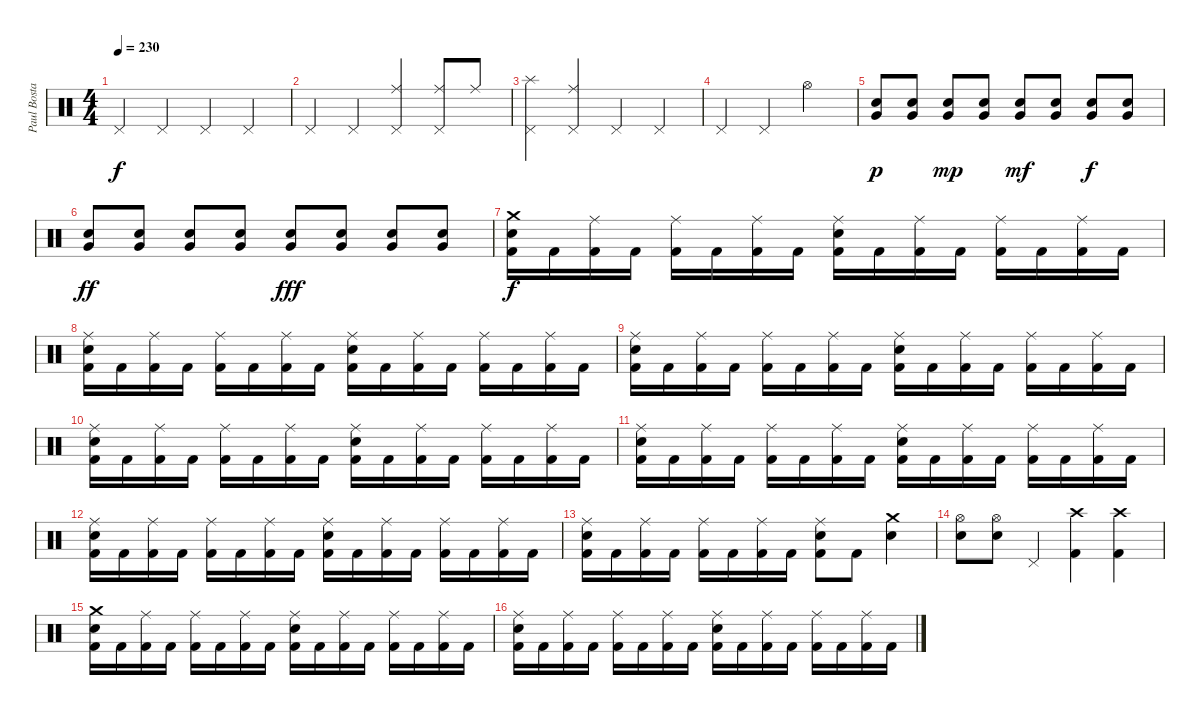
\track ("Paul Bostaph" "Paul Bosta") {instrument percussion}
\staff {score}
\articulation defaults
\ts (4 4)
\tempo 230
\clef neutral
\ks c "Pedal Hi-Hat (hit)".4{dy f} "Pedal Hi-Hat (hit)".4 "Pedal Hi-Hat (hit)".4 "Pedal Hi-Hat (hit)".4
|
"Pedal Hi-Hat (hit)".4 "Pedal Hi-Hat (hit)".4 ("Ride (middle)" "Pedal Hi-Hat (hit)").4 ("Ride (middle)" "Pedal Hi-Hat (hit)").8 "Ride (middle)".8 |
("Splash (hit)" "Pedal Hi-Hat (hit)").4 ("Ride (middle)" "Pedal Hi-Hat (hit)").4 "Pedal Hi-Hat (hit)".4 "Pedal Hi-Hat (hit)".4 |
"Pedal Hi-Hat (hit)".4 "Pedal Hi-Hat (hit)".4 "Hi-Hat (open)".2 |
("Electric Snare (hit)" "Very Low Tom (hit)").8{dy p} ("Electric Snare (hit)" "Very Low Tom (hit)").8 ("Electric Snare (hit)" "Very Low Tom (hit)").8{dy mp} ("Electric Snare (hit)" "Very Low Tom (hit)").8 ("Electric Snare (hit)" "Very Low Tom (hit)").8{dy mf} ("Electric Snare (hit)" "Very Low Tom (hit)").8 ("Electric Snare (hit)" "Very Low Tom (hit)").8{dy f} ("Electric Snare (hit)" "Very Low Tom (hit)").8 |
("Electric Snare (hit)" "Very Low Tom (hit)").8{dy ff} ("Electric Snare (hit)" "Very Low Tom (hit)").8 ("Electric Snare (hit)" "Very Low Tom (hit)").8 ("Electric Snare (hit)" "Very Low Tom (hit)").8 ("Electric Snare (hit)" "Very Low Tom (hit)").8{dy fff} ("Electric Snare (hit)" "Very Low Tom (hit)").8 ("Electric Snare (hit)" "Very Low Tom (hit)").8 ("Electric Snare (hit)" "Very Low Tom (hit)").8 |
("Electric Snare (hit)" "Crash medium (hit)" "Kick (hit) 2").16{dy f} "Kick (hit) 2".16 ("Ride (middle)" "Kick (hit) 2").16 "Kick (hit) 2".16 ("Ride (middle)" "Kick (hit) 2").16 "Kick (hit) 2".16 ("Ride (middle)" "Kick (hit) 2").16 "Kick (hit) 2".16 ("Electric Snare (hit)" "Ride (middle)" "Kick (hit) 2").16 "Kick (hit) 2".16 ("Ride (middle)" "Kick (hit) 2").16 "Kick (hit) 2".16 ("Ride (middle)" "Kick (hit) 2").16 "Kick (hit) 2".16 ("Ride (middle)" "Kick (hit) 2").16 "Kick (hit) 2".16 |
("Electric Snare (hit)" "Ride (middle)" "Kick (hit) 2").16 "Kick (hit) 2".16 ("Ride (middle)" "Kick (hit) 2").16 "Kick (hit) 2".16 ("Ride (middle)" "Kick (hit) 2").16 "Kick (hit) 2".16 ("Ride (middle)" "Kick (hit) 2").16 "Kick (hit) 2".16 ("Electric Snare (hit)" "Ride (middle)" "Kick (hit) 2").16 "Kick (hit) 2".16 ("Ride (middle)" "Kick (hit) 2").16 "Kick (hit) 2".16 ("Ride (middle)" "Kick (hit) 2").16 "Kick (hit) 2".16 ("Ride (middle)" "Kick (hit) 2").16 "Kick (hit) 2".16 |
("Electric Snare (hit)" "Ride (middle)" "Kick (hit) 2").16 "Kick (hit) 2".16 ("Ride (middle)" "Kick (hit) 2").16 "Kick (hit) 2".16 ("Ride (middle)" "Kick (hit) 2").16 "Kick (hit) 2".16 ("Ride (middle)" "Kick (hit) 2").16 "Kick (hit) 2".16 ("Electric Snare (hit)" "Ride (middle)" "Kick (hit) 2").16 "Kick (hit) 2".16 ("Ride (middle)" "Kick (hit) 2").16 "Kick (hit) 2".16 ("Ride (middle)" "Kick (hit) 2").16 "Kick (hit) 2".16 ("Ride (middle)" "Kick (hit) 2").16 "Kick (hit) 2".16 |
("Electric Snare (hit)" "Ride (middle)" "Kick (hit) 2").16 "Kick (hit) 2".16 ("Ride (middle)" "Kick (hit) 2").16 "Kick (hit) 2".16 ("Ride (middle)" "Kick (hit) 2").16 "Kick (hit) 2".16 ("Ride (middle)" "Kick (hit) 2").16 "Kick (hit) 2".16 ("Electric Snare (hit)" "Ride (middle)" "Kick (hit) 2").16 "Kick (hit) 2".16 ("Ride (middle)" "Kick (hit) 2").16 "Kick (hit) 2".16 ("Ride (middle)" "Kick (hit) 2").16 "Kick (hit) 2".16 ("Ride (middle)" "Kick (hit) 2").16 "Kick (hit) 2".16 |
("Electric Snare (hit)" "Ride (middle)" "Kick (hit) 2").16 "Kick (hit) 2".16 ("Ride (middle)" "Kick (hit) 2").16 "Kick (hit) 2".16 ("Ride (middle)" "Kick (hit) 2").16 "Kick (hit) 2".16 ("Ride (middle)" "Kick (hit) 2").16 "Kick (hit) 2".16 ("Electric Snare (hit)" "Ride (middle)" "Kick (hit) 2").16 "Kick (hit) 2".16 ("Ride (middle)" "Kick (hit) 2").16 "Kick (hit) 2".16 ("Ride (middle)" "Kick (hit) 2").16 "Kick (hit) 2".16 ("Ride (middle)" "Kick (hit) 2").16 "Kick (hit) 2".16 |
("Electric Snare (hit)" "Ride (middle)" "Kick (hit) 2").16 "Kick (hit) 2".16 ("Ride (middle)" "Kick (hit) 2").16 "Kick (hit) 2".16 ("Ride (middle)" "Kick (hit) 2").16 "Kick (hit) 2".16 ("Ride (middle)" "Kick (hit) 2").16 "Kick (hit) 2".16 ("Electric Snare (hit)" "Ride (middle)" "Kick (hit) 2").16 "Kick (hit) 2".16 ("Ride (middle)" "Kick (hit) 2").16 "Kick (hit) 2".16 ("Ride (middle)" "Kick (hit) 2").16 "Kick (hit) 2".16 ("Ride (middle)" "Kick (hit) 2").16 "Kick (hit) 2".16 |
("Electric Snare (hit)" "Ride (middle)" "Kick (hit) 2").16 "Kick (hit) 2".16 ("Ride (middle)" "Kick (hit) 2").16 "Kick (hit) 2".16 ("Ride (middle)" "Kick (hit) 2").16 "Kick (hit) 2".16 ("Ride (middle)" "Kick (hit) 2").16 "Kick (hit) 2".16 ("Electric Snare (hit)" "Ride (middle)" "Kick (hit) 2").8 "Kick (hit) 2".8 ("Electric Snare (hit)" "Crash medium (hit)").4 |
("Electric Snare (hit)" "Hi-Hat (open)").8 ("Electric Snare (hit)" "Hi-Hat (open)").8 "Pedal Hi-Hat (hit)".4 ("Crash high (hit)" "Kick (hit) 2").4 ("Crash high (hit)" "Kick (hit) 2").4 |
("Electric Snare (hit)" "Crash medium (hit)" "Kick (hit) 2").16 "Kick (hit) 2".16 ("Ride (middle)" "Kick (hit) 2").16 "Kick (hit) 2".16 ("Ride (middle)" "Kick (hit) 2").16 "Kick (hit) 2".16 ("Ride (middle)" "Kick (hit) 2").16 "Kick (hit) 2".16 ("Electric Snare (hit)" "Ride (middle)" "Kick (hit) 2").16 "Kick (hit) 2".16 ("Ride (middle)" "Kick (hit) 2").16 "Kick (hit) 2".16 ("Ride (middle)" "Kick (hit) 2").16 "Kick (hit) 2".16 ("Ride (middle)" "Kick (hit) 2").16 "Kick (hit) 2".16 |
("Electric Snare (hit)" "Ride (middle)" "Kick (hit) 2").16 "Kick (hit) 2".16 ("Ride (middle)" "Kick (hit) 2").16 "Kick (hit) 2".16 ("Ride (middle)" "Kick (hit) 2").16 "Kick (hit) 2".16 ("Ride (middle)" "Kick (hit) 2").16 "Kick (hit) 2".16 ("Electric Snare (hit)" "Ride (middle)" "Kick (hit) 2").16 "Kick (hit) 2".16 ("Ride (middle)" "Kick (hit) 2").16 "Kick (hit) 2".16 ("Ride (middle)" "Kick (hit) 2").16 "Kick (hit) 2".16 ("Ride (middle)" "Kick (hit) 2").16 "Kick (hit) 2".16
